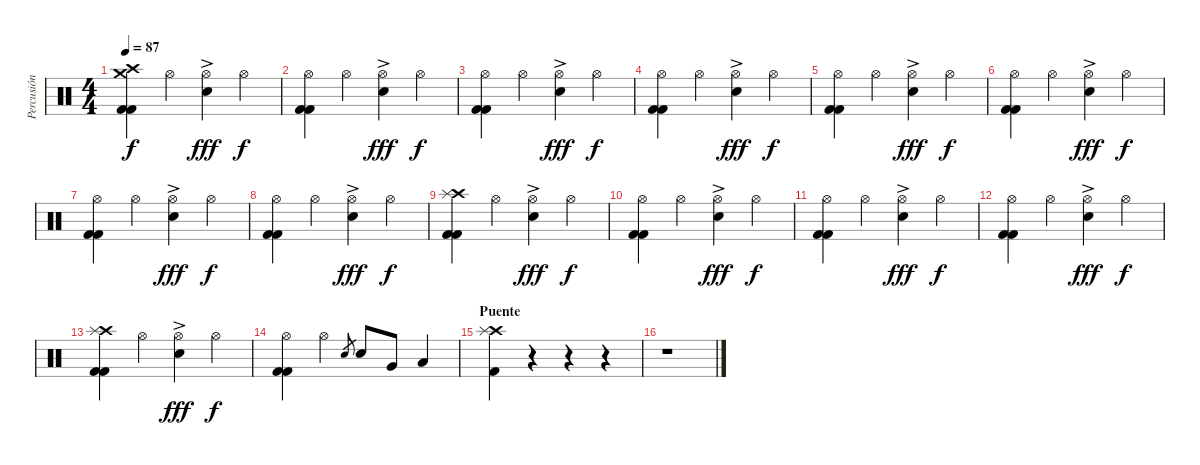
\track ("Percusión" "Percusión") {instrument percussion}
\staff {score}
\articulation defaults
\ts (4 4)
\tempo 87
\clef neutral
\ks c
("Crash medium (hit)" "Crash high (hit)" "Kick (hit) 2" "Kick (hit) 2").4{dy f} "Hi-Hat (open)".4 ("Hi-Hat (open)"{ac} "Snare (hit) 2").4{dy fff} "Hi-Hat (open)".4{dy f} |
("Hi-Hat (open)" "Kick (hit) 2" "Kick (hit) 2").4 "Hi-Hat (open)".4 ("Hi-Hat (open)"{ac} "Snare (hit) 2").4{dy fff} "Hi-Hat (open)".4{dy f} |
("Hi-Hat (open)" "Kick (hit) 2" "Kick (hit) 2").4 "Hi-Hat (open)".4 ("Hi-Hat (open)"{ac} "Snare (hit) 2").4{dy fff} "Hi-Hat (open)".4{dy f} |
("Hi-Hat (open)" "Kick (hit) 2" "Kick (hit) 2").4 "Hi-Hat (open)".4 ("Hi-Hat (open)"{ac} "Snare (hit) 2").4{dy fff} "Hi-Hat (open)".4{dy f} |
("Hi-Hat (open)" "Kick (hit) 2" "Kick (hit) 2").4 "Hi-Hat (open)".4 ("Hi-Hat (open)"{ac} "Snare (hit) 2").4{dy fff} "Hi-Hat (open)".4{dy f} |
("Hi-Hat (open)" "Kick (hit) 2" "Kick (hit) 2").4 "Hi-Hat (open)".4 ("Hi-Hat (open)"{ac} "Snare (hit) 2").4{dy fff} "Hi-Hat (open)".4{dy f} |
("Hi-Hat (open)" "Kick (hit) 2" "Kick (hit) 2").4 "Hi-Hat (open)".4 ("Hi-Hat (open)"{ac} "Snare (hit) 2").4{dy fff} "Hi-Hat (open)".4{dy f} |
("Hi-Hat (open)" "Kick (hit) 2" "Kick (hit) 2").4 "Hi-Hat (open)".4 ("Hi-Hat (open)"{ac} "Snare (hit) 2").4{dy fff} "Hi-Hat (open)".4{dy f} |
("Crash high (hit)" "Splash (hit)" "Kick (hit) 2" "Kick (hit) 2").4 "Hi-Hat (open)".4 ("Hi-Hat (open)"{ac} "Snare (hit) 2").4{dy fff} "Hi-Hat (open)".4{dy f} |
("Hi-Hat (open)" "Kick (hit) 2" "Kick (hit) 2").4 "Hi-Hat (open)".4 ("Hi-Hat (open)"{ac} "Snare (hit) 2").4{dy fff} "Hi-Hat (open)".4{dy f} |
("Hi-Hat (open)" "Kick (hit) 2" "Kick (hit) 2").4 "Hi-Hat (open)".4 ("Hi-Hat (open)"{ac} "Snare (hit) 2").4{dy fff} "Hi-Hat (open)".4{dy f} |
("Hi-Hat (open)" "Kick (hit) 2" "Kick (hit) 2").4 "Hi-Hat (open)".4 ("Hi-Hat (open)"{ac} "Snare (hit) 2").4{dy fff} "Hi-Hat (open)".4{dy f} |
("Crash high (hit)" "Splash (hit)" "Kick (hit) 2" "Kick (hit) 2").4 "Hi-Hat (open)".4 ("Hi-Hat (open)"{ac} "Snare (hit) 2").4{dy fff} "Hi-Hat (open)".4{dy f} |
("Hi-Hat (open)" "Kick (hit) 2" "Kick (hit) 2").4 "Hi-Hat (open)".4 "Snare (hit) 2".8{gr} "Snare (hit) 2".8 "Very Low Tom (hit)".8 "Low Floor Tom (hit)".4 |
\section ("" "Puente")
("Crash high (hit)" "Splash (hit)" "Kick (hit) 2").4 r.4 r.4 r.4 |
r.1
